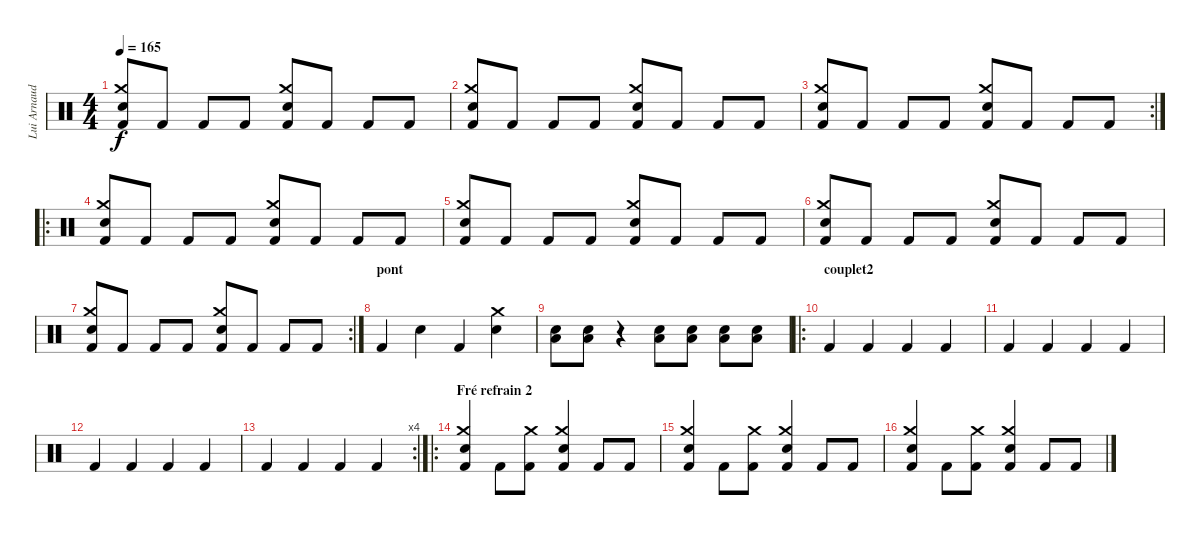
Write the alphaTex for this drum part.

\track ("Lui Arnaudin" "Lui Arnaud") {instrument percussion}
\staff {score}
\articulation defaults
\ts (4 4)
\tempo 165
\clef neutral
\ks c
("Kick (hit) 2" "Crash medium (hit)" "Electric Snare (hit)").8{dy f} "Kick (hit) 2".8 "Kick (hit) 2".8 "Kick (hit) 2".8 ("Kick (hit) 2" "Crash medium (hit)" "Electric Snare (hit)").8 "Kick (hit) 2".8 "Kick (hit) 2".8 "Kick (hit) 2".8 |
("Kick (hit) 2" "Crash medium (hit)" "Electric Snare (hit)").8 "Kick (hit) 2".8 "Kick (hit) 2".8 "Kick (hit) 2".8 ("Kick (hit) 2" "Crash medium (hit)" "Electric Snare (hit)").8 "Kick (hit) 2".8 "Kick (hit) 2".8 "Kick (hit) 2".8 |
\rc 2
("Kick (hit) 2" "Crash medium (hit)" "Electric Snare (hit)").8 "Kick (hit) 2".8 "Kick (hit) 2".8 "Kick (hit) 2".8 ("Kick (hit) 2" "Crash medium (hit)" "Electric Snare (hit)").8 "Kick (hit) 2".8 "Kick (hit) 2".8 "Kick (hit) 2".8 |
\ro
("Kick (hit) 2" "Crash medium (hit)" "Electric Snare (hit)").8 "Kick (hit) 2".8 "Kick (hit) 2".8 "Kick (hit) 2".8 ("Kick (hit) 2" "Crash medium (hit)" "Electric Snare (hit)").8 "Kick (hit) 2".8 "Kick (hit) 2".8 "Kick (hit) 2".8 |
("Kick (hit) 2" "Crash medium (hit)" "Electric Snare (hit)").8 "Kick (hit) 2".8 "Kick (hit) 2".8 "Kick (hit) 2".8 ("Kick (hit) 2" "Crash medium (hit)" "Electric Snare (hit)").8 "Kick (hit) 2".8 "Kick (hit) 2".8 "Kick (hit) 2".8 |
("Kick (hit) 2" "Crash medium (hit)" "Electric Snare (hit)").8 "Kick (hit) 2".8 "Kick (hit) 2".8 "Kick (hit) 2".8 ("Kick (hit) 2" "Crash medium (hit)" "Electric Snare (hit)").8 "Kick (hit) 2".8 "Kick (hit) 2".8 "Kick (hit) 2".8 |
\rc 2
("Kick (hit) 2" "Crash medium (hit)" "Electric Snare (hit)").8 "Kick (hit) 2".8 "Kick (hit) 2".8 "Kick (hit) 2".8 ("Kick (hit) 2" "Crash medium (hit)" "Electric Snare (hit)").8 "Kick (hit) 2".8 "Kick (hit) 2".8 "Kick (hit) 2".8 |
\section ("" "pont")
"Kick (hit) 2".4 "Electric Snare (hit)".4 "Kick (hit) 2".4 ("Crash medium (hit)" "Electric Snare (hit)").4 |
("Electric Snare (hit)" "Low Tom (hit)").8 ("Electric Snare (hit)" "Low Tom (hit)").8 r.4 ("Electric Snare (hit)" "Low Tom (hit)").8 ("Electric Snare (hit)" "Low Tom (hit)").8 ("Electric Snare (hit)" "Low Tom (hit)").8 ("Electric Snare (hit)" "Low Tom (hit)").8 |
\ro
\section ("" "couplet2")
"Kick (hit) 2".4 "Kick (hit) 2".4 "Kick (hit) 2".4 "Kick (hit) 2".4 |
"Kick (hit) 2".4 "Kick (hit) 2".4 "Kick (hit) 2".4 "Kick (hit) 2".4 |
"Kick (hit) 2".4 "Kick (hit) 2".4 "Kick (hit) 2".4 "Kick (hit) 2".4 |
\rc 4 "Kick (hit) 2".4 "Kick (hit) 2".4 "Kick (hit) 2".4 "Kick (hit) 2".4
|
\ro
\section ("" "Fré refrain 2")
("Kick (hit) 2" "Crash medium (hit)" "Electric Snare (hit)").4 "Kick (hit) 2".8 ("Crash medium (hit)" "Kick (hit) 2").8 ("Kick (hit) 2" "Crash medium (hit)" "Electric Snare (hit)").4 "Kick (hit) 2".8 "Kick (hit) 2".8 |
("Kick (hit) 2" "Crash medium (hit)" "Electric Snare (hit)").4 "Kick (hit) 2".8 ("Crash medium (hit)" "Kick (hit) 2").8 ("Kick (hit) 2" "Crash medium (hit)" "Electric Snare (hit)").4 "Kick (hit) 2".8 "Kick (hit) 2".8 |
("Kick (hit) 2" "Crash medium (hit)" "Electric Snare (hit)").4 "Kick (hit) 2".8 ("Crash medium (hit)" "Kick (hit) 2").8 ("Kick (hit) 2" "Crash medium (hit)" "Electric Snare (hit)").4 "Kick (hit) 2".8 "Kick (hit) 2".8
